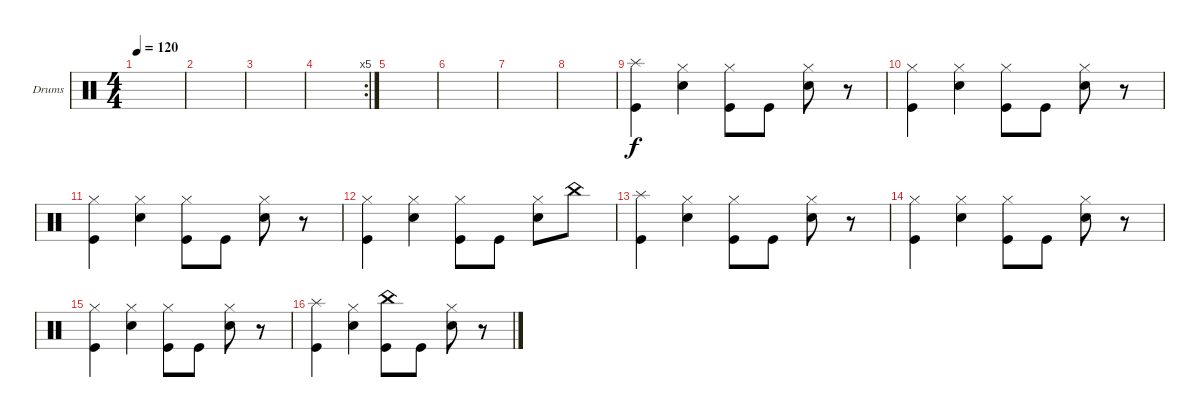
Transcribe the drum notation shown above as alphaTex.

\bracketExtendMode groupsimilarinstruments
\firstSystemTrackNameOrientation horizontal
\otherSystemsTrackNameOrientation horizontal
\track ("Drumkit" "Drums") {instrument percussion}
\staff {score}
\articulation defaults
\ts (4 4)
\tempo 120
\clef neutral
\ks c
|
|
|
\rc 5
|
|
|
|
|
("Splash (hit)" "Kick (hit)").4 ("Hi-Hat (closed)" "Snare (hit) 2").4 ("Hi-Hat (closed)" "Kick (hit)").8 "Kick (hit)".8 ("Hi-Hat (closed)" "Snare (hit) 2").8 r.8 |
("Kick (hit)" "Hi-Hat (closed)").4 ("Hi-Hat (closed)" "Snare (hit) 2").4 ("Hi-Hat (closed)" "Kick (hit)").8 "Kick (hit)".8 ("Hi-Hat (closed)" "Snare (hit) 2").8 r.8 |
("Kick (hit)" "Hi-Hat (closed)").4 ("Hi-Hat (closed)" "Snare (hit) 2").4 ("Hi-Hat (closed)" "Kick (hit)").8 "Kick (hit)".8 ("Hi-Hat (closed)" "Snare (hit) 2").8 r.8 |
("Kick (hit)" "Hi-Hat (closed)").4 ("Hi-Hat (closed)" "Snare (hit) 2").4 ("Hi-Hat (closed)" "Kick (hit)").8 "Kick (hit)".8 ("Hi-Hat (closed)" "Snare (hit) 2").8 "China (hit)".8 |
("Splash (hit)" "Kick (hit)").4 ("Hi-Hat (closed)" "Snare (hit) 2").4 ("Hi-Hat (closed)" "Kick (hit)").8 "Kick (hit)".8 ("Hi-Hat (closed)" "Snare (hit) 2").8 r.8 |
("Kick (hit)" "Hi-Hat (closed)").4 ("Hi-Hat (closed)" "Snare (hit) 2").4 ("Hi-Hat (closed)" "Kick (hit)").8 "Kick (hit)".8 ("Hi-Hat (closed)" "Snare (hit) 2").8 r.8 |
("Kick (hit)" "Hi-Hat (closed)").4 ("Hi-Hat (closed)" "Snare (hit) 2").4 ("Hi-Hat (closed)" "Kick (hit)").8 "Kick (hit)".8 ("Hi-Hat (closed)" "Snare (hit) 2").8 r.8 |
("Kick (hit)" "Splash (hit)").4 ("Hi-Hat (closed)" "Snare (hit) 2").4 ("Kick (hit)" "China (hit)").8 "Kick (hit)".8 ("Hi-Hat (closed)" "Snare (hit) 2").8 r.8
